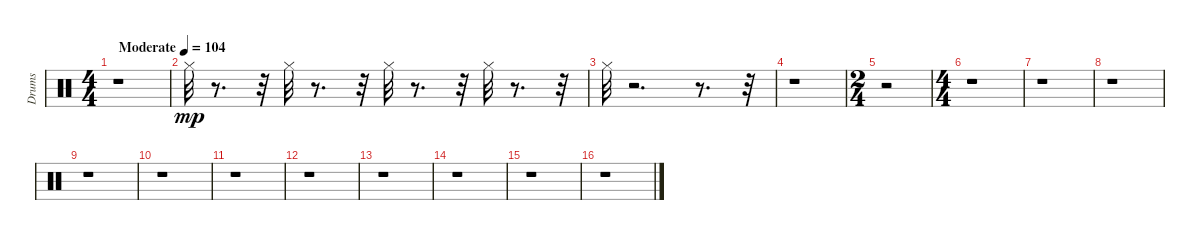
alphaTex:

\track ("Drums" "Drums") {instrument percussion}
\staff {score}
\articulation defaults
\ts (4 4)
\tempo (104 "Moderate")
\clef neutral
\ks c
r.1{dy mp} |
"Hi-Hat (closed)".32 r.8{d} r.32 "Hi-Hat (closed)".32 r.8{d} r.32 "Hi-Hat (closed)".32 r.8{d} r.32 "Hi-Hat (closed)".32 r.8{d} r.32 |
"Hi-Hat (closed)".32 r.2{d} r.8{d} r.32 |
r.1 |
\ts (2 4)
r.2 |
\ts (4 4)
r.1 |
r.1 |
r.1 |
r.1 |
r.1 |
r.1 |
r.1 |
r.1 |
r.1 |
r.1 |
r.1
